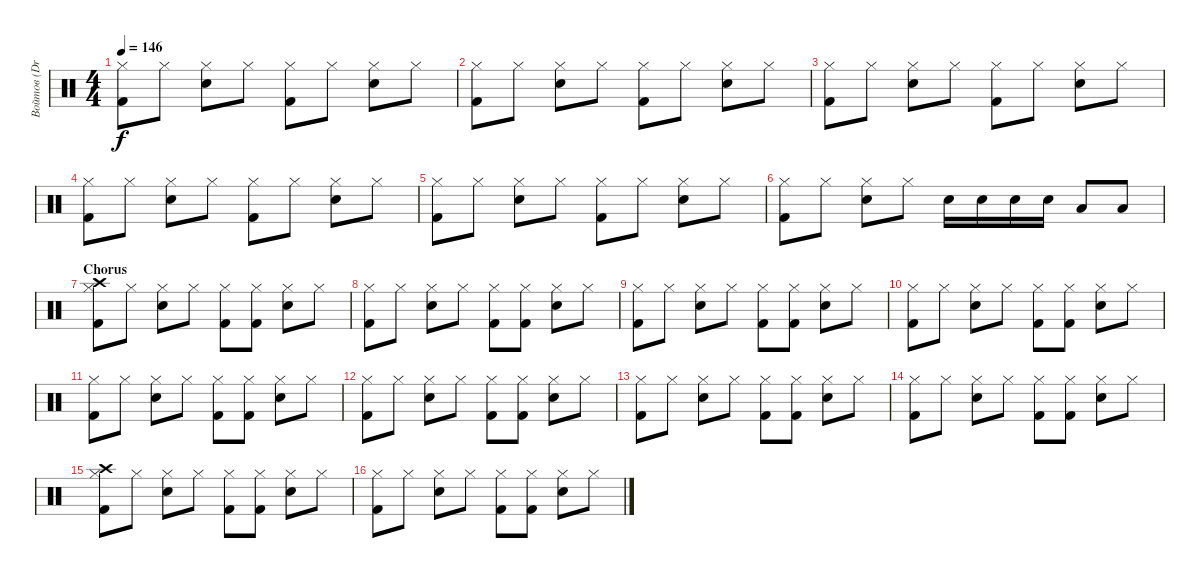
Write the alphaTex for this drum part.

\track ("Войтов (Drums)" "Войтов (Dr") {instrument percussion}
\staff {score}
\articulation defaults
\ts (4 4)
\tempo 146
\clef neutral
\ks c
("Kick (hit) 2" "Hi-Hat (closed)").8{dy f} "Hi-Hat (closed)".8 ("Electric Snare (hit)" "Hi-Hat (closed)").8 "Hi-Hat (closed)".8 ("Kick (hit) 2" "Hi-Hat (closed)").8 "Hi-Hat (closed)".8 ("Electric Snare (hit)" "Hi-Hat (closed)").8 "Hi-Hat (closed)".8 |
("Kick (hit) 2" "Hi-Hat (closed)").8 "Hi-Hat (closed)".8 ("Electric Snare (hit)" "Hi-Hat (closed)").8 "Hi-Hat (closed)".8 ("Kick (hit) 2" "Hi-Hat (closed)").8 "Hi-Hat (closed)".8 ("Electric Snare (hit)" "Hi-Hat (closed)").8 "Hi-Hat (closed)".8 |
("Kick (hit) 2" "Hi-Hat (closed)").8 "Hi-Hat (closed)".8 ("Electric Snare (hit)" "Hi-Hat (closed)").8 "Hi-Hat (closed)".8 ("Kick (hit) 2" "Hi-Hat (closed)").8 "Hi-Hat (closed)".8 ("Electric Snare (hit)" "Hi-Hat (closed)").8 "Hi-Hat (closed)".8 |
("Kick (hit) 2" "Hi-Hat (closed)").8 "Hi-Hat (closed)".8 ("Electric Snare (hit)" "Hi-Hat (closed)").8 "Hi-Hat (closed)".8 ("Kick (hit) 2" "Hi-Hat (closed)").8 "Hi-Hat (closed)".8 ("Electric Snare (hit)" "Hi-Hat (closed)").8 "Hi-Hat (closed)".8 |
("Kick (hit) 2" "Hi-Hat (closed)").8 "Hi-Hat (closed)".8 ("Electric Snare (hit)" "Hi-Hat (closed)").8 "Hi-Hat (closed)".8 ("Kick (hit) 2" "Hi-Hat (closed)").8 "Hi-Hat (closed)".8 ("Electric Snare (hit)" "Hi-Hat (closed)").8 "Hi-Hat (closed)".8 |
("Kick (hit) 2" "Hi-Hat (closed)").8 "Hi-Hat (closed)".8 ("Electric Snare (hit)" "Hi-Hat (closed)").8 "Hi-Hat (closed)".8 "Electric Snare (hit)".16 "Electric Snare (hit)".16 "Electric Snare (hit)".16 "Electric Snare (hit)".16 "Low Tom (hit)".8 "Low Tom (hit)".8 |
\section ("" "Chorus")
("Kick (hit) 2" "Crash high (hit)" "Hi-Hat (closed)").8 "Hi-Hat (closed)".8 ("Electric Snare (hit)" "Hi-Hat (closed)").8 "Hi-Hat (closed)".8 ("Kick (hit) 2" "Hi-Hat (closed)").8 ("Kick (hit) 2" "Hi-Hat (closed)").8 ("Electric Snare (hit)" "Hi-Hat (closed)").8 "Hi-Hat (closed)".8 |
("Kick (hit) 2" "Hi-Hat (closed)").8 "Hi-Hat (closed)".8 ("Electric Snare (hit)" "Hi-Hat (closed)").8 "Hi-Hat (closed)".8 ("Kick (hit) 2" "Hi-Hat (closed)").8 ("Kick (hit) 2" "Hi-Hat (closed)").8 ("Electric Snare (hit)" "Hi-Hat (closed)").8 "Hi-Hat (closed)".8 |
("Kick (hit) 2" "Hi-Hat (closed)").8 "Hi-Hat (closed)".8 ("Electric Snare (hit)" "Hi-Hat (closed)").8 "Hi-Hat (closed)".8 ("Kick (hit) 2" "Hi-Hat (closed)").8 ("Kick (hit) 2" "Hi-Hat (closed)").8 ("Electric Snare (hit)" "Hi-Hat (closed)").8 "Hi-Hat (closed)".8 |
("Kick (hit) 2" "Hi-Hat (closed)").8 "Hi-Hat (closed)".8 ("Electric Snare (hit)" "Hi-Hat (closed)").8 "Hi-Hat (closed)".8 ("Kick (hit) 2" "Hi-Hat (closed)").8 ("Kick (hit) 2" "Hi-Hat (closed)").8 ("Electric Snare (hit)" "Hi-Hat (closed)").8 "Hi-Hat (closed)".8 |
("Kick (hit) 2" "Hi-Hat (closed)").8 "Hi-Hat (closed)".8 ("Electric Snare (hit)" "Hi-Hat (closed)").8 "Hi-Hat (closed)".8 ("Kick (hit) 2" "Hi-Hat (closed)").8 ("Kick (hit) 2" "Hi-Hat (closed)").8 ("Electric Snare (hit)" "Hi-Hat (closed)").8 "Hi-Hat (closed)".8 |
("Kick (hit) 2" "Hi-Hat (closed)").8 "Hi-Hat (closed)".8 ("Electric Snare (hit)" "Hi-Hat (closed)").8 "Hi-Hat (closed)".8 ("Kick (hit) 2" "Hi-Hat (closed)").8 ("Kick (hit) 2" "Hi-Hat (closed)").8 ("Electric Snare (hit)" "Hi-Hat (closed)").8 "Hi-Hat (closed)".8 |
("Kick (hit) 2" "Hi-Hat (closed)").8 "Hi-Hat (closed)".8 ("Electric Snare (hit)" "Hi-Hat (closed)").8 "Hi-Hat (closed)".8 ("Kick (hit) 2" "Hi-Hat (closed)").8 ("Kick (hit) 2" "Hi-Hat (closed)").8 ("Electric Snare (hit)" "Hi-Hat (closed)").8 "Hi-Hat (closed)".8 |
("Kick (hit) 2" "Hi-Hat (closed)").8 "Hi-Hat (closed)".8 ("Electric Snare (hit)" "Hi-Hat (closed)").8 "Hi-Hat (closed)".8 ("Kick (hit) 2" "Hi-Hat (closed)").8 ("Kick (hit) 2" "Hi-Hat (closed)").8 ("Electric Snare (hit)" "Hi-Hat (closed)").8 "Hi-Hat (closed)".8 |
("Kick (hit) 2" "Crash high (hit)" "Hi-Hat (closed)").8 "Hi-Hat (closed)".8 ("Electric Snare (hit)" "Hi-Hat (closed)").8 "Hi-Hat (closed)".8 ("Kick (hit) 2" "Hi-Hat (closed)").8 ("Kick (hit) 2" "Hi-Hat (closed)").8 ("Electric Snare (hit)" "Hi-Hat (closed)").8 "Hi-Hat (closed)".8 |
("Kick (hit) 2" "Hi-Hat (closed)").8 "Hi-Hat (closed)".8 ("Electric Snare (hit)" "Hi-Hat (closed)").8 "Hi-Hat (closed)".8 ("Kick (hit) 2" "Hi-Hat (closed)").8 ("Kick (hit) 2" "Hi-Hat (closed)").8 ("Electric Snare (hit)" "Hi-Hat (closed)").8 "Hi-Hat (closed)".8
